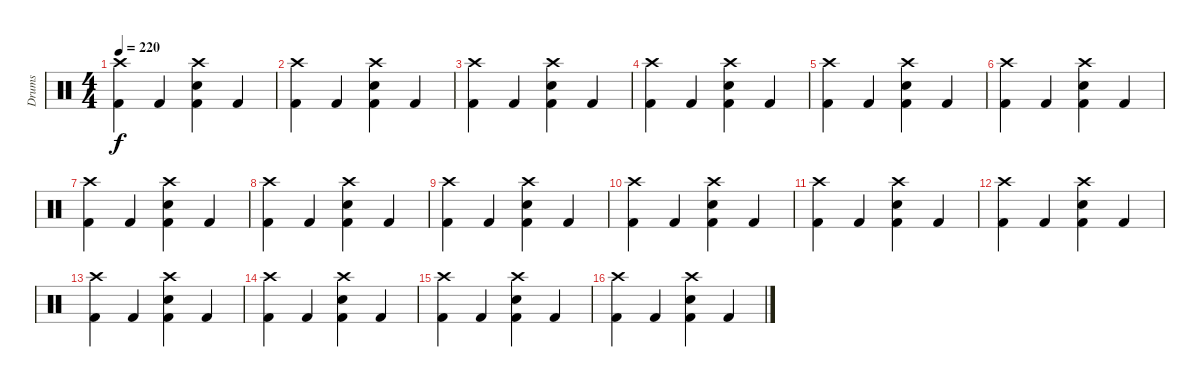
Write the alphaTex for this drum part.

\track ("Drums" "Drums") {instrument percussion}
\staff {score}
\articulation defaults
\ts (4 4)
\tempo 220
\clef neutral
\ks c
("Crash high (hit)" "Kick (hit) 2").4{dy f} "Kick (hit) 2".4 ("Crash high (hit)" "Snare (hit) 2" "Kick (hit) 2").4 "Kick (hit) 2".4 |
("Crash high (hit)" "Kick (hit) 2").4 "Kick (hit) 2".4 ("Crash high (hit)" "Snare (hit) 2" "Kick (hit) 2").4 "Kick (hit) 2".4 |
("Crash high (hit)" "Kick (hit) 2").4 "Kick (hit) 2".4 ("Crash high (hit)" "Snare (hit) 2" "Kick (hit) 2").4 "Kick (hit) 2".4 |
("Crash high (hit)" "Kick (hit) 2").4 "Kick (hit) 2".4 ("Crash high (hit)" "Snare (hit) 2" "Kick (hit) 2").4 "Kick (hit) 2".4 |
("Crash high (hit)" "Kick (hit) 2").4 "Kick (hit) 2".4 ("Crash high (hit)" "Snare (hit) 2" "Kick (hit) 2").4 "Kick (hit) 2".4 |
("Crash high (hit)" "Kick (hit) 2").4 "Kick (hit) 2".4 ("Crash high (hit)" "Snare (hit) 2" "Kick (hit) 2").4 "Kick (hit) 2".4 |
("Crash high (hit)" "Kick (hit) 2").4 "Kick (hit) 2".4 ("Crash high (hit)" "Snare (hit) 2" "Kick (hit) 2").4 "Kick (hit) 2".4 |
("Crash high (hit)" "Kick (hit) 2").4 "Kick (hit) 2".4 ("Crash high (hit)" "Snare (hit) 2" "Kick (hit) 2").4 "Kick (hit) 2".4 |
("Crash high (hit)" "Kick (hit) 2").4 "Kick (hit) 2".4 ("Crash high (hit)" "Snare (hit) 2" "Kick (hit) 2").4 "Kick (hit) 2".4 |
("Crash high (hit)" "Kick (hit) 2").4 "Kick (hit) 2".4 ("Crash high (hit)" "Snare (hit) 2" "Kick (hit) 2").4 "Kick (hit) 2".4 |
("Crash high (hit)" "Kick (hit) 2").4 "Kick (hit) 2".4 ("Crash high (hit)" "Snare (hit) 2" "Kick (hit) 2").4 "Kick (hit) 2".4 |
("Crash high (hit)" "Kick (hit) 2").4 "Kick (hit) 2".4 ("Crash high (hit)" "Snare (hit) 2" "Kick (hit) 2").4 "Kick (hit) 2".4 |
("Crash high (hit)" "Kick (hit) 2").4 "Kick (hit) 2".4 ("Crash high (hit)" "Snare (hit) 2" "Kick (hit) 2").4 "Kick (hit) 2".4 |
("Crash high (hit)" "Kick (hit) 2").4 "Kick (hit) 2".4 ("Crash high (hit)" "Snare (hit) 2" "Kick (hit) 2").4 "Kick (hit) 2".4 |
("Crash high (hit)" "Kick (hit) 2").4 "Kick (hit) 2".4 ("Crash high (hit)" "Snare (hit) 2" "Kick (hit) 2").4 "Kick (hit) 2".4 |
("Crash high (hit)" "Kick (hit) 2").4 "Kick (hit) 2".4 ("Crash high (hit)" "Snare (hit) 2" "Kick (hit) 2").4 "Kick (hit) 2".4
